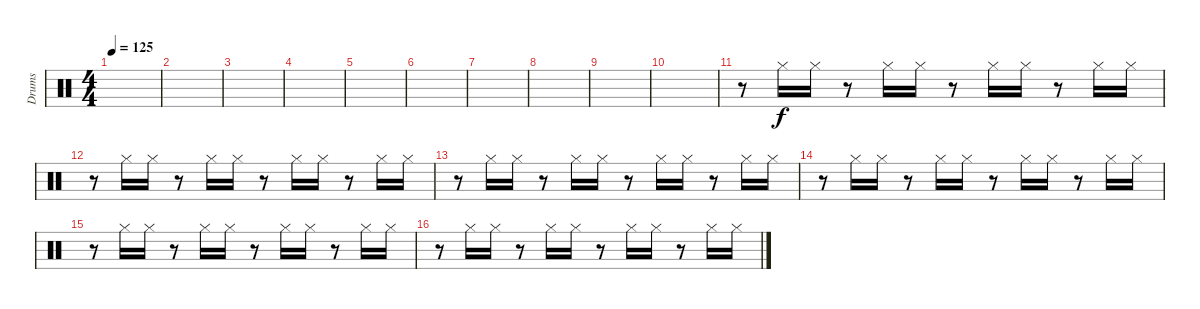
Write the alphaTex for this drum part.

\track ("Drums" "Drums") {instrument percussion}
\staff {score}
\articulation defaults
\ts (4 4)
\tempo 125
\clef neutral
\ks c
|
|
|
|
|
|
|
|
|
|
r.8 "Hi-Hat (closed)".16 "Hi-Hat (closed)".16 r.8 "Hi-Hat (closed)".16 "Hi-Hat (closed)".16 r.8 "Hi-Hat (closed)".16 "Hi-Hat (closed)".16 r.8 "Hi-Hat (closed)".16 "Hi-Hat (closed)".16 |
r.8 "Hi-Hat (closed)".16 "Hi-Hat (closed)".16 r.8 "Hi-Hat (closed)".16 "Hi-Hat (closed)".16 r.8 "Hi-Hat (closed)".16 "Hi-Hat (closed)".16 r.8 "Hi-Hat (closed)".16 "Hi-Hat (closed)".16 |
r.8 "Hi-Hat (closed)".16 "Hi-Hat (closed)".16 r.8 "Hi-Hat (closed)".16 "Hi-Hat (closed)".16 r.8 "Hi-Hat (closed)".16 "Hi-Hat (closed)".16 r.8 "Hi-Hat (closed)".16 "Hi-Hat (closed)".16 |
r.8 "Hi-Hat (closed)".16 "Hi-Hat (closed)".16 r.8 "Hi-Hat (closed)".16 "Hi-Hat (closed)".16 r.8 "Hi-Hat (closed)".16 "Hi-Hat (closed)".16 r.8 "Hi-Hat (closed)".16 "Hi-Hat (closed)".16 |
r.8 "Hi-Hat (closed)".16 "Hi-Hat (closed)".16 r.8 "Hi-Hat (closed)".16 "Hi-Hat (closed)".16 r.8 "Hi-Hat (closed)".16 "Hi-Hat (closed)".16 r.8 "Hi-Hat (closed)".16 "Hi-Hat (closed)".16 |
r.8 "Hi-Hat (closed)".16 "Hi-Hat (closed)".16 r.8 "Hi-Hat (closed)".16 "Hi-Hat (closed)".16 r.8 "Hi-Hat (closed)".16 "Hi-Hat (closed)".16 r.8 "Hi-Hat (closed)".16 "Hi-Hat (closed)".16
